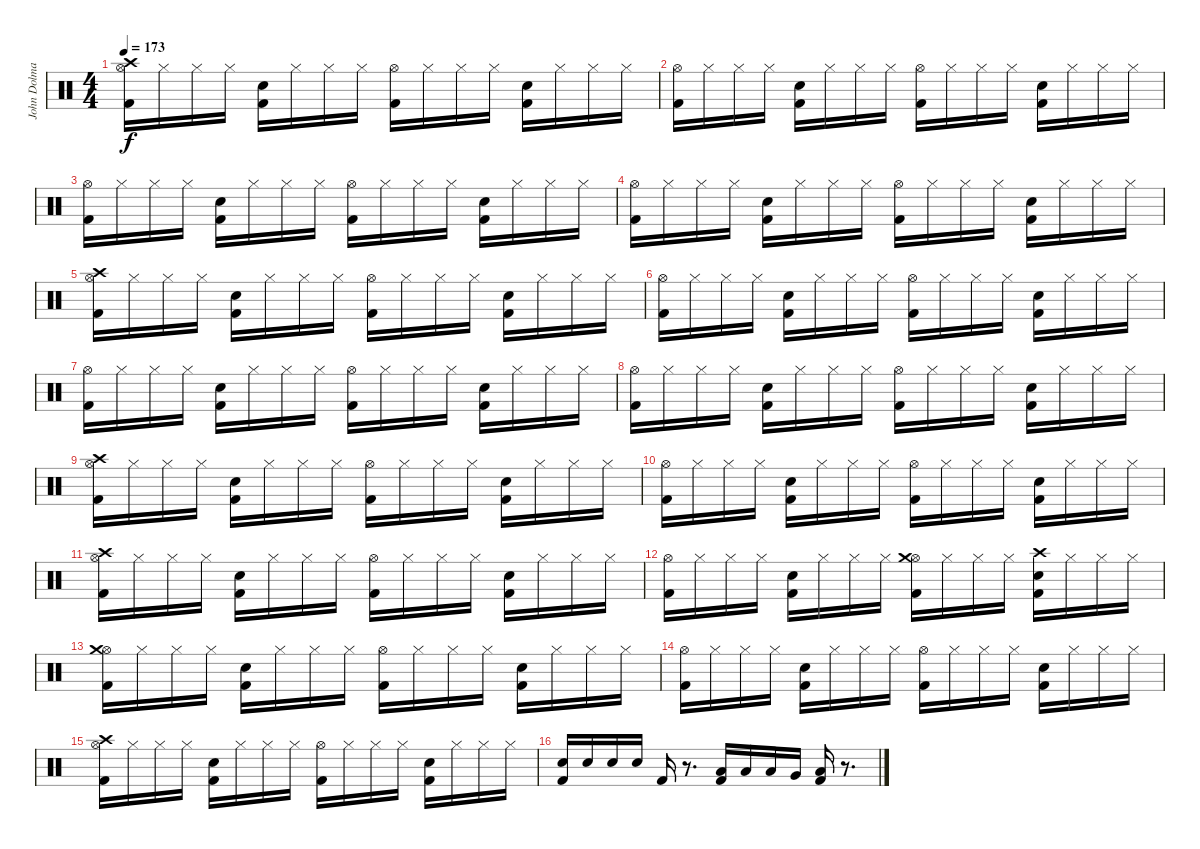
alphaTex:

\track ("John Dolmayan" "John Dolma") {instrument percussion}
\staff {score}
\articulation defaults
\ts (4 4)
\tempo 173
\clef neutral
\ks c
("Kick (hit) 2" "Hi-Hat (open)" "Crash high (hit)").16{dy f} "Hi-Hat (closed)".16 "Hi-Hat (closed)".16 "Hi-Hat (closed)".16 ("Kick (hit) 2" "Electric Snare (hit)").16 "Hi-Hat (closed)".16 "Hi-Hat (closed)".16 "Hi-Hat (closed)".16 ("Kick (hit) 2" "Hi-Hat (open)").16 "Hi-Hat (closed)".16 "Hi-Hat (closed)".16 "Hi-Hat (closed)".16 ("Kick (hit) 2" "Electric Snare (hit)").16 "Hi-Hat (closed)".16 "Hi-Hat (closed)".16 "Hi-Hat (closed)".16 |
("Kick (hit) 2" "Hi-Hat (open)").16 "Hi-Hat (closed)".16 "Hi-Hat (closed)".16 "Hi-Hat (closed)".16 ("Kick (hit) 2" "Electric Snare (hit)").16 "Hi-Hat (closed)".16 "Hi-Hat (closed)".16 "Hi-Hat (closed)".16 ("Kick (hit) 2" "Hi-Hat (open)").16 "Hi-Hat (closed)".16 "Hi-Hat (closed)".16 "Hi-Hat (closed)".16 ("Kick (hit) 2" "Electric Snare (hit)").16 "Hi-Hat (closed)".16 "Hi-Hat (closed)".16 "Hi-Hat (closed)".16 |
("Kick (hit) 2" "Hi-Hat (open)").16 "Hi-Hat (closed)".16 "Hi-Hat (closed)".16 "Hi-Hat (closed)".16 ("Kick (hit) 2" "Electric Snare (hit)").16 "Hi-Hat (closed)".16 "Hi-Hat (closed)".16 "Hi-Hat (closed)".16 ("Kick (hit) 2" "Hi-Hat (open)").16 "Hi-Hat (closed)".16 "Hi-Hat (closed)".16 "Hi-Hat (closed)".16 ("Kick (hit) 2" "Electric Snare (hit)").16 "Hi-Hat (closed)".16 "Hi-Hat (closed)".16 "Hi-Hat (closed)".16 |
("Kick (hit) 2" "Hi-Hat (open)").16 "Hi-Hat (closed)".16 "Hi-Hat (closed)".16 "Hi-Hat (closed)".16 ("Kick (hit) 2" "Electric Snare (hit)").16 "Hi-Hat (closed)".16 "Hi-Hat (closed)".16 "Hi-Hat (closed)".16 ("Kick (hit) 2" "Hi-Hat (open)").16 "Hi-Hat (closed)".16 "Hi-Hat (closed)".16 "Hi-Hat (closed)".16 ("Kick (hit) 2" "Electric Snare (hit)").16 "Hi-Hat (closed)".16 "Hi-Hat (closed)".16 "Hi-Hat (closed)".16 |
("Kick (hit) 2" "Hi-Hat (open)" "Crash high (hit)").16 "Hi-Hat (closed)".16 "Hi-Hat (closed)".16 "Hi-Hat (closed)".16 ("Kick (hit) 2" "Electric Snare (hit)").16 "Hi-Hat (closed)".16 "Hi-Hat (closed)".16 "Hi-Hat (closed)".16 ("Kick (hit) 2" "Hi-Hat (open)").16 "Hi-Hat (closed)".16 "Hi-Hat (closed)".16 "Hi-Hat (closed)".16 ("Kick (hit) 2" "Electric Snare (hit)").16 "Hi-Hat (closed)".16 "Hi-Hat (closed)".16 "Hi-Hat (closed)".16 |
("Kick (hit) 2" "Hi-Hat (open)").16 "Hi-Hat (closed)".16 "Hi-Hat (closed)".16 "Hi-Hat (closed)".16 ("Kick (hit) 2" "Electric Snare (hit)").16 "Hi-Hat (closed)".16 "Hi-Hat (closed)".16 "Hi-Hat (closed)".16 ("Kick (hit) 2" "Hi-Hat (open)").16 "Hi-Hat (closed)".16 "Hi-Hat (closed)".16 "Hi-Hat (closed)".16 ("Kick (hit) 2" "Electric Snare (hit)").16 "Hi-Hat (closed)".16 "Hi-Hat (closed)".16 "Hi-Hat (closed)".16 |
("Kick (hit) 2" "Hi-Hat (open)").16 "Hi-Hat (closed)".16 "Hi-Hat (closed)".16 "Hi-Hat (closed)".16 ("Kick (hit) 2" "Electric Snare (hit)").16 "Hi-Hat (closed)".16 "Hi-Hat (closed)".16 "Hi-Hat (closed)".16 ("Kick (hit) 2" "Hi-Hat (open)").16 "Hi-Hat (closed)".16 "Hi-Hat (closed)".16 "Hi-Hat (closed)".16 ("Kick (hit) 2" "Electric Snare (hit)").16 "Hi-Hat (closed)".16 "Hi-Hat (closed)".16 "Hi-Hat (closed)".16 |
("Kick (hit) 2" "Hi-Hat (open)").16 "Hi-Hat (closed)".16 "Hi-Hat (closed)".16 "Hi-Hat (closed)".16 ("Kick (hit) 2" "Electric Snare (hit)").16 "Hi-Hat (closed)".16 "Hi-Hat (closed)".16 "Hi-Hat (closed)".16 ("Kick (hit) 2" "Hi-Hat (open)").16 "Hi-Hat (closed)".16 "Hi-Hat (closed)".16 "Hi-Hat (closed)".16 ("Kick (hit) 2" "Electric Snare (hit)").16 "Hi-Hat (closed)".16 "Hi-Hat (closed)".16 "Hi-Hat (closed)".16 |
("Kick (hit) 2" "Hi-Hat (open)" "Crash high (hit)").16 "Hi-Hat (closed)".16 "Hi-Hat (closed)".16 "Hi-Hat (closed)".16 ("Kick (hit) 2" "Electric Snare (hit)").16 "Hi-Hat (closed)".16 "Hi-Hat (closed)".16 "Hi-Hat (closed)".16 ("Kick (hit) 2" "Hi-Hat (open)").16 "Hi-Hat (closed)".16 "Hi-Hat (closed)".16 "Hi-Hat (closed)".16 ("Kick (hit) 2" "Electric Snare (hit)").16 "Hi-Hat (closed)".16 "Hi-Hat (closed)".16 "Hi-Hat (closed)".16 |
("Kick (hit) 2" "Hi-Hat (open)").16 "Hi-Hat (closed)".16 "Hi-Hat (closed)".16 "Hi-Hat (closed)".16 ("Kick (hit) 2" "Electric Snare (hit)").16 "Hi-Hat (closed)".16 "Hi-Hat (closed)".16 "Hi-Hat (closed)".16 ("Kick (hit) 2" "Hi-Hat (open)").16 "Hi-Hat (closed)".16 "Hi-Hat (closed)".16 "Hi-Hat (closed)".16 ("Kick (hit) 2" "Electric Snare (hit)").16 "Hi-Hat (closed)".16 "Hi-Hat (closed)".16 "Hi-Hat (closed)".16 |
("Kick (hit) 2" "Hi-Hat (open)" "Crash high (hit)").16 "Hi-Hat (closed)".16 "Hi-Hat (closed)".16 "Hi-Hat (closed)".16 ("Kick (hit) 2" "Electric Snare (hit)").16 "Hi-Hat (closed)".16 "Hi-Hat (closed)".16 "Hi-Hat (closed)".16 ("Kick (hit) 2" "Hi-Hat (open)").16 "Hi-Hat (closed)".16 "Hi-Hat (closed)".16 "Hi-Hat (closed)".16 ("Kick (hit) 2" "Electric Snare (hit)").16 "Hi-Hat (closed)".16 "Hi-Hat (closed)".16 "Hi-Hat (closed)".16 |
("Kick (hit) 2" "Hi-Hat (open)").16 "Hi-Hat (closed)".16 "Hi-Hat (closed)".16 "Hi-Hat (closed)".16 ("Kick (hit) 2" "Electric Snare (hit)").16 "Hi-Hat (closed)".16 "Hi-Hat (closed)".16 "Hi-Hat (closed)".16 ("Kick (hit) 2" "Hi-Hat (open)" "Crash medium (hit)").16 "Hi-Hat (closed)".16 "Hi-Hat (closed)".16 "Hi-Hat (closed)".16 ("Kick (hit) 2" "Electric Snare (hit)" "Crash high (hit)").16 "Hi-Hat (closed)".16 "Hi-Hat (closed)".16 "Hi-Hat (closed)".16 |
("Kick (hit) 2" "Hi-Hat (open)" "Crash medium (hit)").16 "Hi-Hat (closed)".16 "Hi-Hat (closed)".16 "Hi-Hat (closed)".16 ("Kick (hit) 2" "Electric Snare (hit)").16 "Hi-Hat (closed)".16 "Hi-Hat (closed)".16 "Hi-Hat (closed)".16 ("Kick (hit) 2" "Hi-Hat (open)").16 "Hi-Hat (closed)".16 "Hi-Hat (closed)".16 "Hi-Hat (closed)".16 ("Kick (hit) 2" "Electric Snare (hit)").16 "Hi-Hat (closed)".16 "Hi-Hat (closed)".16 "Hi-Hat (closed)".16 |
("Kick (hit) 2" "Hi-Hat (open)").16 "Hi-Hat (closed)".16 "Hi-Hat (closed)".16 "Hi-Hat (closed)".16 ("Kick (hit) 2" "Electric Snare (hit)").16 "Hi-Hat (closed)".16 "Hi-Hat (closed)".16 "Hi-Hat (closed)".16 ("Kick (hit) 2" "Hi-Hat (open)").16 "Hi-Hat (closed)".16 "Hi-Hat (closed)".16 "Hi-Hat (closed)".16 ("Kick (hit) 2" "Electric Snare (hit)").16 "Hi-Hat (closed)".16 "Hi-Hat (closed)".16 "Hi-Hat (closed)".16 |
("Kick (hit) 2" "Hi-Hat (open)" "Crash high (hit)").16 "Hi-Hat (closed)".16 "Hi-Hat (closed)".16 "Hi-Hat (closed)".16 ("Kick (hit) 2" "Electric Snare (hit)").16 "Hi-Hat (closed)".16 "Hi-Hat (closed)".16 "Hi-Hat (closed)".16 ("Kick (hit) 2" "Hi-Hat (open)").16 "Hi-Hat (closed)".16 "Hi-Hat (closed)".16 "Hi-Hat (closed)".16 ("Kick (hit) 2" "Electric Snare (hit)").16 "Hi-Hat (closed)".16 "Hi-Hat (closed)".16 "Hi-Hat (closed)".16 |
("Kick (hit) 2" "Electric Snare (hit)").16 "Electric Snare (hit)".16 "Electric Snare (hit)".16 "Electric Snare (hit)".16 "Kick (hit) 2".16 r.8{d} ("Kick (hit) 2" "Low Tom (hit)").16 "Low Tom (hit)".16 "Low Tom (hit)".16 "Very Low Tom (hit)".16 ("Kick (hit) 2" "Low Floor Tom (hit)").16 r.8{d}
